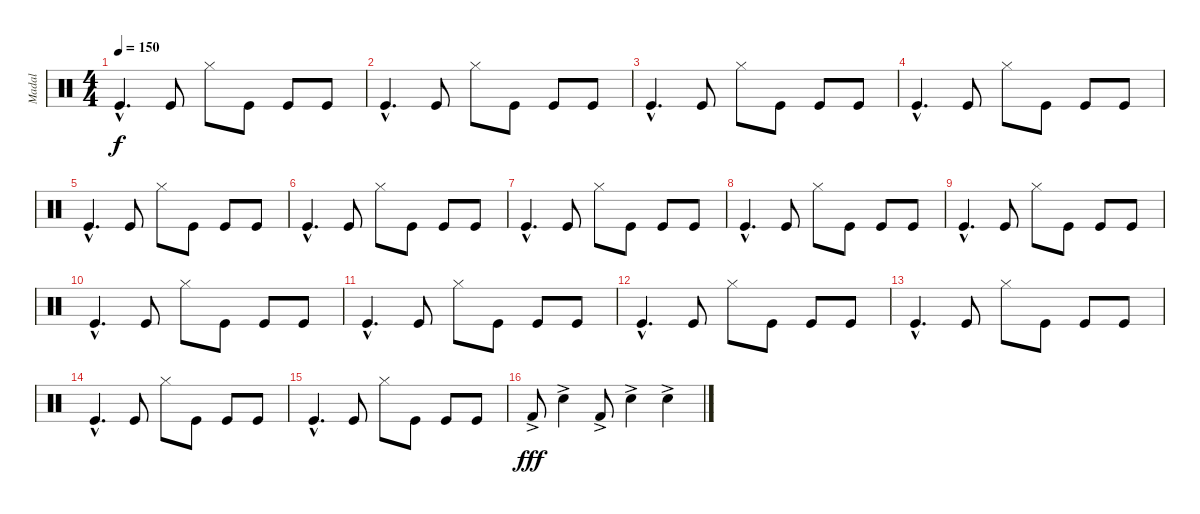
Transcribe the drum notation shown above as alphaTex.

\track ("Madal" "Madal") {instrument percussion}
\staff {score}
\articulation defaults
\ts (4 4)
\tempo 150
\clef neutral
\ks c "Kick (hit)"{hac}.4{d dy f} "Kick (hit)".8 "Hi-Hat (closed)".8 "Kick (hit)".8 "Kick (hit)".8 "Kick (hit)".8
|
"Kick (hit)"{hac}.4{d} "Kick (hit)".8 "Hi-Hat (closed)".8 "Kick (hit)".8 "Kick (hit)".8 "Kick (hit)".8 |
"Kick (hit)"{hac}.4{d} "Kick (hit)".8 "Hi-Hat (closed)".8 "Kick (hit)".8 "Kick (hit)".8 "Kick (hit)".8 |
"Kick (hit)"{hac}.4{d} "Kick (hit)".8 "Hi-Hat (closed)".8 "Kick (hit)".8 "Kick (hit)".8 "Kick (hit)".8 |
"Kick (hit)"{hac}.4{d} "Kick (hit)".8 "Hi-Hat (closed)".8 "Kick (hit)".8 "Kick (hit)".8 "Kick (hit)".8 |
"Kick (hit)"{hac}.4{d} "Kick (hit)".8 "Hi-Hat (closed)".8 "Kick (hit)".8 "Kick (hit)".8 "Kick (hit)".8 |
"Kick (hit)"{hac}.4{d} "Kick (hit)".8 "Hi-Hat (closed)".8 "Kick (hit)".8 "Kick (hit)".8 "Kick (hit)".8 |
"Kick (hit)"{hac}.4{d} "Kick (hit)".8 "Hi-Hat (closed)".8 "Kick (hit)".8 "Kick (hit)".8 "Kick (hit)".8 |
"Kick (hit)"{hac}.4{d} "Kick (hit)".8 "Hi-Hat (closed)".8 "Kick (hit)".8 "Kick (hit)".8 "Kick (hit)".8 |
"Kick (hit)"{hac}.4{d} "Kick (hit)".8 "Hi-Hat (closed)".8 "Kick (hit)".8 "Kick (hit)".8 "Kick (hit)".8 |
"Kick (hit)"{hac}.4{d} "Kick (hit)".8 "Hi-Hat (closed)".8 "Kick (hit)".8 "Kick (hit)".8 "Kick (hit)".8 |
"Kick (hit)"{hac}.4{d} "Kick (hit)".8 "Hi-Hat (closed)".8 "Kick (hit)".8 "Kick (hit)".8 "Kick (hit)".8 |
"Kick (hit)"{hac}.4{d} "Kick (hit)".8 "Hi-Hat (closed)".8 "Kick (hit)".8 "Kick (hit)".8 "Kick (hit)".8 |
"Kick (hit)"{hac}.4{d} "Kick (hit)".8 "Hi-Hat (closed)".8 "Kick (hit)".8 "Kick (hit)".8 "Kick (hit)".8 |
"Kick (hit)"{hac}.4{d} "Kick (hit)".8 "Hi-Hat (closed)".8 "Kick (hit)".8 "Kick (hit)".8 "Kick (hit)".8 |
"Kick (hit) 2"{ac}.8{dy fff volume 6} "Electric Snare (hit)"{ac}.4 "Kick (hit) 2"{ac}.8 "Electric Snare (hit)"{ac}.4 "Electric Snare (hit)"{ac}.4
